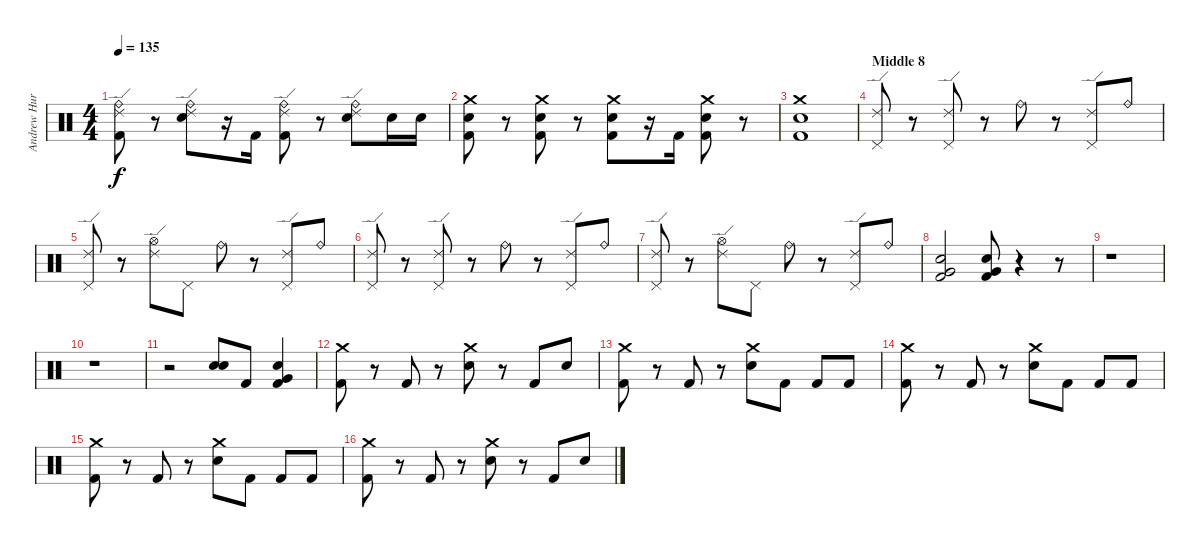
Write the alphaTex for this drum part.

\track ("Andrew Hurley (Drums)" "Andrew Hur") {instrument percussion}
\staff {score}
\articulation defaults
\ts (4 4)
\tempo 135
\clef neutral
\ks c
("Ride (bell)" "Ride (edge) 2" "Kick (hit) 2").8{dy f} r.8 ("Ride (bell)" "Ride (edge) 2" "Electric Snare (hit)").8 r.16 "Kick (hit) 2".16 ("Ride (bell)" "Ride (edge) 2" "Kick (hit) 2").8 r.8 ("Ride (bell)" "Ride (edge) 2" "Electric Snare (hit)").8 "Electric Snare (hit)".16 "Electric Snare (hit)".16 |
("Crash medium (hit)" "Electric Snare (hit)" "Kick (hit) 2").8 r.8 ("Crash medium (hit)" "Electric Snare (hit)" "Kick (hit) 2").8 r.8 ("Crash medium (hit)" "Electric Snare (hit)" "Kick (hit) 2").8 r.16 "Kick (hit) 2".16 ("Crash medium (hit)" "Electric Snare (hit)" "Kick (hit) 2").8 r.8 |
("Crash medium (hit)" "Electric Snare (hit)" "Kick (hit) 2").1 |
\section ("" "Middle 8")
("Ride (edge) 2" "Pedal Hi-Hat (hit)").8 r.8 ("Ride (edge) 2" "Pedal Hi-Hat (hit)").8 r.8 "Ride (bell)".8 r.8 ("Ride (edge) 2" "Pedal Hi-Hat (hit)").8 "Ride (bell)".8 |
("Ride (edge) 2" "Pedal Hi-Hat (hit)").8 r.8 ("Ride (edge) 2" "Hi-Hat (open)").8 "Pedal Hi-Hat (hit)".8 "Ride (bell)".8 r.8 ("Ride (edge) 2" "Pedal Hi-Hat (hit)").8 "Ride (bell)".8 |
("Ride (edge) 2" "Pedal Hi-Hat (hit)").8 r.8 ("Ride (edge) 2" "Pedal Hi-Hat (hit)").8 r.8 "Ride (bell)".8 r.8 ("Ride (edge) 2" "Pedal Hi-Hat (hit)").8 "Ride (bell)".8 |
("Ride (edge) 2" "Pedal Hi-Hat (hit)").8 r.8 ("Ride (edge) 2" "Hi-Hat (open)").8 "Pedal Hi-Hat (hit)".8 "Ride (bell)".8 r.8 ("Ride (edge) 2" "Pedal Hi-Hat (hit)").8 "Ride (bell)".8 |
("Electric Snare (hit)" "Very Low Tom (hit)" "Kick (hit) 2").2 ("Electric Snare (hit)" "Very Low Tom (hit)" "Kick (hit) 2").8 r.4 r.8 |
r.1 |
r.1 |
r.2 ("Electric Snare (hit)" "Snare (hit) 2").8 "Kick (hit) 2".8 ("Snare (hit) 2" "Very Low Tom (hit)" "Kick (hit) 2").4 |
("Crash medium (hit)" "Kick (hit) 2").8 r.8 "Kick (hit) 2".8 r.8 ("Crash medium (hit)" "Electric Snare (hit)").8 r.8 "Kick (hit) 2".8 "Electric Snare (hit)".8 |
("Crash medium (hit)" "Kick (hit) 2").8 r.8 "Kick (hit) 2".8 r.8 ("Crash medium (hit)" "Electric Snare (hit)").8 "Kick (hit) 2".8 "Kick (hit) 2".8 "Kick (hit) 2".8 |
("Crash medium (hit)" "Kick (hit) 2").8 r.8 "Kick (hit) 2".8 r.8 ("Crash medium (hit)" "Electric Snare (hit)").8 "Kick (hit) 2".8 "Kick (hit) 2".8 "Kick (hit) 2".8 |
("Crash medium (hit)" "Kick (hit) 2").8 r.8 "Kick (hit) 2".8 r.8 ("Crash medium (hit)" "Electric Snare (hit)").8 "Kick (hit) 2".8 "Kick (hit) 2".8 "Kick (hit) 2".8 |
("Crash medium (hit)" "Kick (hit) 2").8 r.8 "Kick (hit) 2".8 r.8 ("Crash medium (hit)" "Electric Snare (hit)").8 r.8 "Kick (hit) 2".8 "Electric Snare (hit)".8
